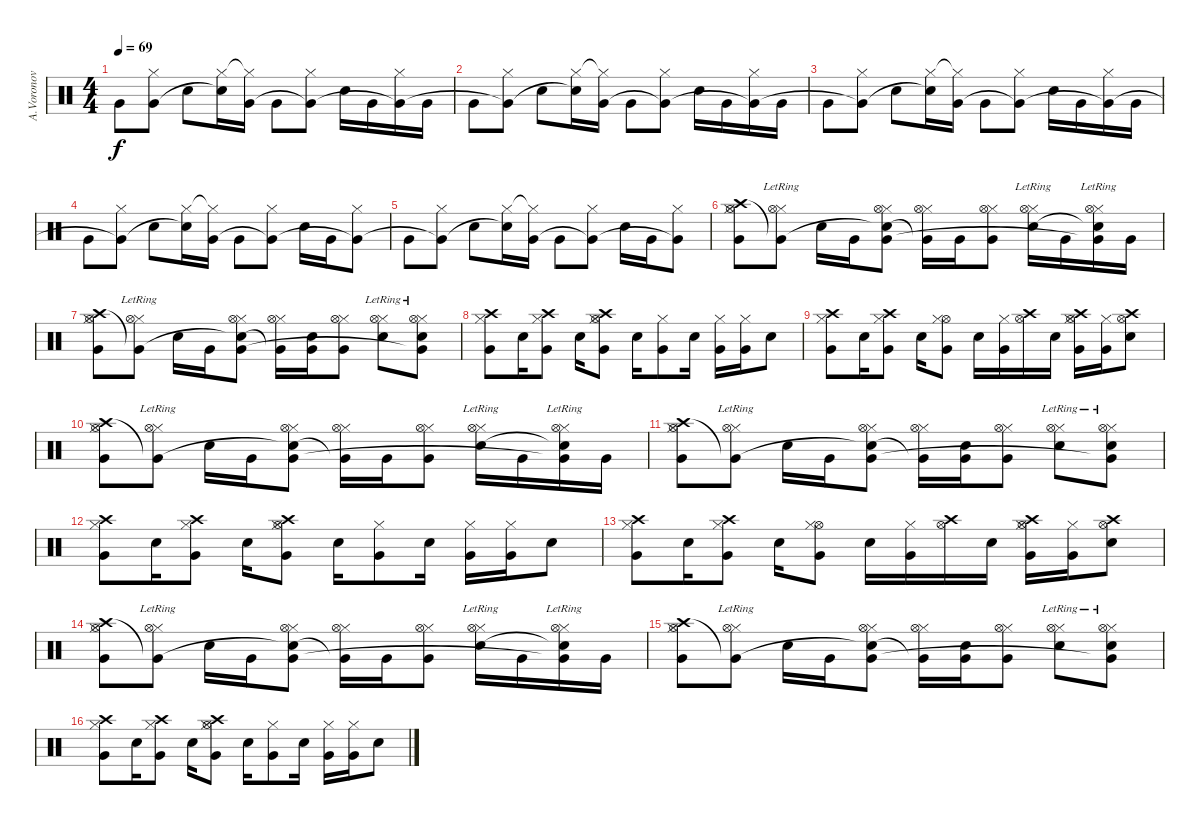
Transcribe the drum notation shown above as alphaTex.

\track ("A.Voronov - Drumzzz" "A.Voronov ") {instrument percussion}
\staff {score}
\articulation defaults
\ts (4 4)
\tempo 69
\clef neutral
\ks c "Very Low Tom (hit)".8{dy f}
("Hi-Hat (closed)" "Very Low Tom (hit)"{t}).8 "Electric Snare (hit)".8 ("Hi-Hat (closed)" "Electric Snare (hit)"{t}).16 ("Hi-Hat (closed)"{t} "Very Low Tom (hit)").16 "Very Low Tom (hit)".8 ("Hi-Hat (closed)" "Very Low Tom (hit)"{t}).8 "Electric Snare (hit)".16 "Very Low Tom (hit)".16 ("Hi-Hat (closed)" "Very Low Tom (hit)"{t}).16 "Very Low Tom (hit)".16 |
"Very Low Tom (hit)".8 ("Hi-Hat (closed)" "Very Low Tom (hit)"{t}).8 "Electric Snare (hit)".8 ("Hi-Hat (closed)" "Electric Snare (hit)"{t}).16 ("Hi-Hat (closed)"{t} "Very Low Tom (hit)").16 "Very Low Tom (hit)".8 ("Hi-Hat (closed)" "Very Low Tom (hit)"{t}).8 "Electric Snare (hit)".16 "Very Low Tom (hit)".16 ("Hi-Hat (closed)" "Very Low Tom (hit)"{t}).16 "Very Low Tom (hit)".16 |
"Very Low Tom (hit)".8 ("Hi-Hat (closed)" "Very Low Tom (hit)"{t}).8 "Electric Snare (hit)".8 ("Hi-Hat (closed)" "Electric Snare (hit)"{t}).16 ("Hi-Hat (closed)"{t} "Very Low Tom (hit)").16 "Very Low Tom (hit)".8 ("Hi-Hat (closed)" "Very Low Tom (hit)"{t}).8 "Electric Snare (hit)".16 "Very Low Tom (hit)".16 ("Hi-Hat (closed)" "Very Low Tom (hit)"{t}).16 "Very Low Tom (hit)".16 |
"Very Low Tom (hit)".8 ("Hi-Hat (closed)" "Very Low Tom (hit)"{t}).8 "Electric Snare (hit)".8 ("Hi-Hat (closed)" "Electric Snare (hit)"{t}).16 ("Hi-Hat (closed)"{t} "Very Low Tom (hit)").16 "Very Low Tom (hit)".8 ("Hi-Hat (closed)" "Very Low Tom (hit)"{t}).8 "Electric Snare (hit)".16 "Very Low Tom (hit)".16 ("Hi-Hat (closed)" "Very Low Tom (hit)"{t}).8 |
"Very Low Tom (hit)".8 ("Hi-Hat (closed)" "Very Low Tom (hit)"{t}).8 "Electric Snare (hit)".8 ("Hi-Hat (closed)" "Electric Snare (hit)"{t}).16 ("Hi-Hat (closed)"{t} "Very Low Tom (hit)").16 "Very Low Tom (hit)".8 ("Hi-Hat (closed)" "Very Low Tom (hit)"{t}).8 "Electric Snare (hit)".16 "Very Low Tom (hit)".16 ("Hi-Hat (closed)" "Very Low Tom (hit)"{t}).8 |
("Hi-Hat (open)" "Hi-Hat (closed)" "Crash high (hit)" "Very Low Tom (hit)").8 ("Hi-Hat (closed)"{lr} "Hi-Hat (open)"{lr} "Very Low Tom (hit)"{t}).8 "Electric Snare (hit)".16 "Very Low Tom (hit)".16 ("Hi-Hat (closed)" "Hi-Hat (open)" "Electric Snare (hit)"{t} "Very Low Tom (hit)").8 ("Hi-Hat (closed)" "Hi-Hat (open)" "Very Low Tom (hit)"{t}).16 "Very Low Tom (hit)".16 ("Hi-Hat (closed)" "Hi-Hat (open)" "Very Low Tom (hit)").8 ("Hi-Hat (closed)"{lr} "Hi-Hat (open)"{lr} "Electric Snare (hit)").16 "Very Low Tom (hit)".16 ("Hi-Hat (closed)"{lr} "Hi-Hat (open)"{lr} "Electric Snare (hit)"{t} "Very Low Tom (hit)"{t}).16 "Very Low Tom (hit)".16 |
("Hi-Hat (open)" "Hi-Hat (closed)" "Crash high (hit)" "Very Low Tom (hit)").8 ("Hi-Hat (closed)"{lr} "Hi-Hat (open)"{lr} "Very Low Tom (hit)"{t}).8 "Electric Snare (hit)".16 "Very Low Tom (hit)".16 ("Hi-Hat (closed)" "Hi-Hat (open)" "Electric Snare (hit)"{t} "Very Low Tom (hit)").8 ("Hi-Hat (closed)" "Hi-Hat (open)" "Very Low Tom (hit)"{t}).16 ("Electric Snare (hit)" "Very Low Tom (hit)").16 ("Hi-Hat (closed)" "Hi-Hat (open)" "Very Low Tom (hit)").8 ("Hi-Hat (closed)"{lr} "Hi-Hat (open)"{lr} "Electric Snare (hit)").8 ("Hi-Hat (closed)"{lr} "Hi-Hat (open)"{lr} "Electric Snare (hit)" "Very Low Tom (hit)"{t}).8 |
("Crash high (hit)" "Hi-Hat (closed)" "Very Low Tom (hit)").8 "Electric Snare (hit)".16 ("Crash high (hit)" "Hi-Hat (closed)" "Very Low Tom (hit)").8 "Electric Snare (hit)".16 ("Crash high (hit)" "Hi-Hat (open)" "Hi-Hat (closed)" "Very Low Tom (hit)").8 "Electric Snare (hit)".16 ("Hi-Hat (closed)" "Very Low Tom (hit)").8 "Electric Snare (hit)".16 ("Hi-Hat (closed)" "Very Low Tom (hit)").16 ("Hi-Hat (closed)" "Very Low Tom (hit)").16 "Electric Snare (hit)".8 |
("Crash high (hit)" "Hi-Hat (closed)" "Very Low Tom (hit)").8 "Electric Snare (hit)".16 ("Crash high (hit)" "Hi-Hat (closed)" "Very Low Tom (hit)").8 "Electric Snare (hit)".16 ("Hi-Hat (open)" "Hi-Hat (closed)" "Very Low Tom (hit)").8 "Electric Snare (hit)".16 ("Hi-Hat (closed)" "Very Low Tom (hit)").16 ("Crash high (hit)" "Hi-Hat (open)").16 "Electric Snare (hit)".16 ("Crash high (hit)" "Hi-Hat (open)" "Hi-Hat (closed)" "Very Low Tom (hit)").16 ("Hi-Hat (closed)" "Very Low Tom (hit)").16 ("Crash high (hit)" "Hi-Hat (open)" "Electric Snare (hit)").8 |
("Hi-Hat (open)" "Hi-Hat (closed)" "Crash high (hit)" "Very Low Tom (hit)").8 ("Hi-Hat (closed)"{lr} "Hi-Hat (open)"{lr} "Very Low Tom (hit)"{t}).8 "Electric Snare (hit)".16 "Very Low Tom (hit)".16 ("Hi-Hat (closed)" "Hi-Hat (open)" "Electric Snare (hit)"{t} "Very Low Tom (hit)").8 ("Hi-Hat (closed)" "Hi-Hat (open)" "Very Low Tom (hit)"{t}).16 "Very Low Tom (hit)".16 ("Hi-Hat (closed)" "Hi-Hat (open)" "Very Low Tom (hit)").8 ("Hi-Hat (closed)"{lr} "Hi-Hat (open)"{lr} "Electric Snare (hit)").16 "Very Low Tom (hit)".16 ("Hi-Hat (closed)"{lr} "Hi-Hat (open)"{lr} "Electric Snare (hit)"{t} "Very Low Tom (hit)"{t}).16 "Very Low Tom (hit)".16 |
("Hi-Hat (open)" "Hi-Hat (closed)" "Crash high (hit)" "Very Low Tom (hit)").8 ("Hi-Hat (closed)"{lr} "Hi-Hat (open)"{lr} "Very Low Tom (hit)"{t}).8 "Electric Snare (hit)".16 "Very Low Tom (hit)".16 ("Hi-Hat (closed)" "Hi-Hat (open)" "Electric Snare (hit)"{t} "Very Low Tom (hit)").8 ("Hi-Hat (closed)" "Hi-Hat (open)" "Very Low Tom (hit)"{t}).16 ("Electric Snare (hit)" "Very Low Tom (hit)").16 ("Hi-Hat (closed)" "Hi-Hat (open)" "Very Low Tom (hit)").8 ("Hi-Hat (closed)"{lr} "Hi-Hat (open)"{lr} "Electric Snare (hit)").8 ("Hi-Hat (closed)"{lr} "Hi-Hat (open)"{lr} "Electric Snare (hit)" "Very Low Tom (hit)"{t}).8 |
("Crash high (hit)" "Hi-Hat (closed)" "Very Low Tom (hit)").8 "Electric Snare (hit)".16 ("Crash high (hit)" "Hi-Hat (closed)" "Very Low Tom (hit)").8 "Electric Snare (hit)".16 ("Crash high (hit)" "Hi-Hat (open)" "Hi-Hat (closed)" "Very Low Tom (hit)").8 "Electric Snare (hit)".16 ("Hi-Hat (closed)" "Very Low Tom (hit)").8 "Electric Snare (hit)".16 ("Hi-Hat (closed)" "Very Low Tom (hit)").16 ("Hi-Hat (closed)" "Very Low Tom (hit)").16 "Electric Snare (hit)".8 |
("Crash high (hit)" "Hi-Hat (closed)" "Very Low Tom (hit)").8 "Electric Snare (hit)".16 ("Crash high (hit)" "Hi-Hat (closed)" "Very Low Tom (hit)").8 "Electric Snare (hit)".16 ("Hi-Hat (open)" "Hi-Hat (closed)" "Very Low Tom (hit)").8 "Electric Snare (hit)".16 ("Hi-Hat (closed)" "Very Low Tom (hit)").16 ("Crash high (hit)" "Hi-Hat (open)").16 "Electric Snare (hit)".16 ("Crash high (hit)" "Hi-Hat (open)" "Hi-Hat (closed)" "Very Low Tom (hit)").16 ("Hi-Hat (closed)" "Very Low Tom (hit)").16 ("Crash high (hit)" "Hi-Hat (open)" "Electric Snare (hit)").8 |
("Hi-Hat (open)" "Hi-Hat (closed)" "Crash high (hit)" "Very Low Tom (hit)").8 ("Hi-Hat (closed)"{lr} "Hi-Hat (open)"{lr} "Very Low Tom (hit)"{t}).8 "Electric Snare (hit)".16 "Very Low Tom (hit)".16 ("Hi-Hat (closed)" "Hi-Hat (open)" "Electric Snare (hit)"{t} "Very Low Tom (hit)").8 ("Hi-Hat (closed)" "Hi-Hat (open)" "Very Low Tom (hit)"{t}).16 "Very Low Tom (hit)".16 ("Hi-Hat (closed)" "Hi-Hat (open)" "Very Low Tom (hit)").8 ("Hi-Hat (closed)"{lr} "Hi-Hat (open)"{lr} "Electric Snare (hit)").16 "Very Low Tom (hit)".16 ("Hi-Hat (closed)"{lr} "Hi-Hat (open)"{lr} "Electric Snare (hit)"{t} "Very Low Tom (hit)"{t}).16 "Very Low Tom (hit)".16 |
("Hi-Hat (open)" "Hi-Hat (closed)" "Crash high (hit)" "Very Low Tom (hit)").8 ("Hi-Hat (closed)"{lr} "Hi-Hat (open)"{lr} "Very Low Tom (hit)"{t}).8 "Electric Snare (hit)".16 "Very Low Tom (hit)".16 ("Hi-Hat (closed)" "Hi-Hat (open)" "Electric Snare (hit)"{t} "Very Low Tom (hit)").8 ("Hi-Hat (closed)" "Hi-Hat (open)" "Very Low Tom (hit)"{t}).16 ("Electric Snare (hit)" "Very Low Tom (hit)").16 ("Hi-Hat (closed)" "Hi-Hat (open)" "Very Low Tom (hit)").8 ("Hi-Hat (closed)"{lr} "Hi-Hat (open)"{lr} "Electric Snare (hit)").8 ("Hi-Hat (closed)"{lr} "Hi-Hat (open)"{lr} "Electric Snare (hit)" "Very Low Tom (hit)"{t}).8 |
("Crash high (hit)" "Hi-Hat (closed)" "Very Low Tom (hit)").8 "Electric Snare (hit)".16 ("Crash high (hit)" "Hi-Hat (closed)" "Very Low Tom (hit)").8 "Electric Snare (hit)".16 ("Crash high (hit)" "Hi-Hat (open)" "Hi-Hat (closed)" "Very Low Tom (hit)").8 "Electric Snare (hit)".16 ("Hi-Hat (closed)" "Very Low Tom (hit)").8 "Electric Snare (hit)".16 ("Hi-Hat (closed)" "Very Low Tom (hit)").16 ("Hi-Hat (closed)" "Very Low Tom (hit)").16 "Electric Snare (hit)".8
